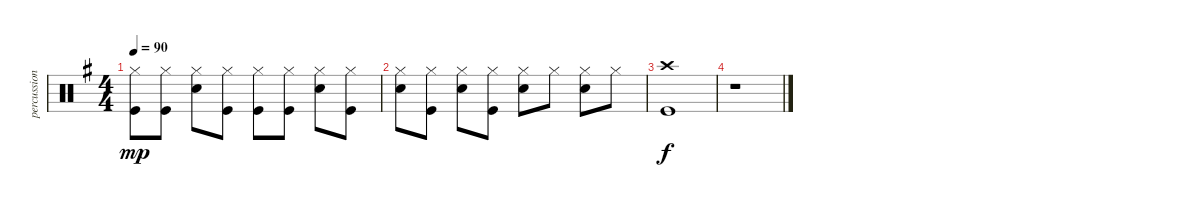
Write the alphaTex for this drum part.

\track ("percussion" "percussion") {instrument percussion}
\staff {score}
\articulation defaults
\ts (4 4)
\tempo 90
\clef neutral
\ks g
("Hi-Hat (closed)" "Kick (hit)").8{dy mp} ("Hi-Hat (closed)" "Kick (hit)").8 ("Electric Snare (hit)" "Hi-Hat (closed)").8 ("Hi-Hat (closed)" "Kick (hit)").8 ("Hi-Hat (closed)" "Kick (hit)").8 ("Hi-Hat (closed)" "Kick (hit)").8 ("Electric Snare (hit)" "Hi-Hat (closed)").8 ("Hi-Hat (closed)" "Kick (hit)").8 |
("Electric Snare (hit)" "Hi-Hat (closed)").8 ("Hi-Hat (closed)" "Kick (hit)").8 ("Electric Snare (hit)" "Hi-Hat (closed)").8 ("Hi-Hat (closed)" "Kick (hit)").8 ("Electric Snare (hit)" "Hi-Hat (closed)").8 "Hi-Hat (closed)".8 ("Electric Snare (hit)" "Hi-Hat (closed)").8 "Hi-Hat (closed)".8 |
("Crash high (hit)" "Kick (hit)").1{dy f} |
r.1
